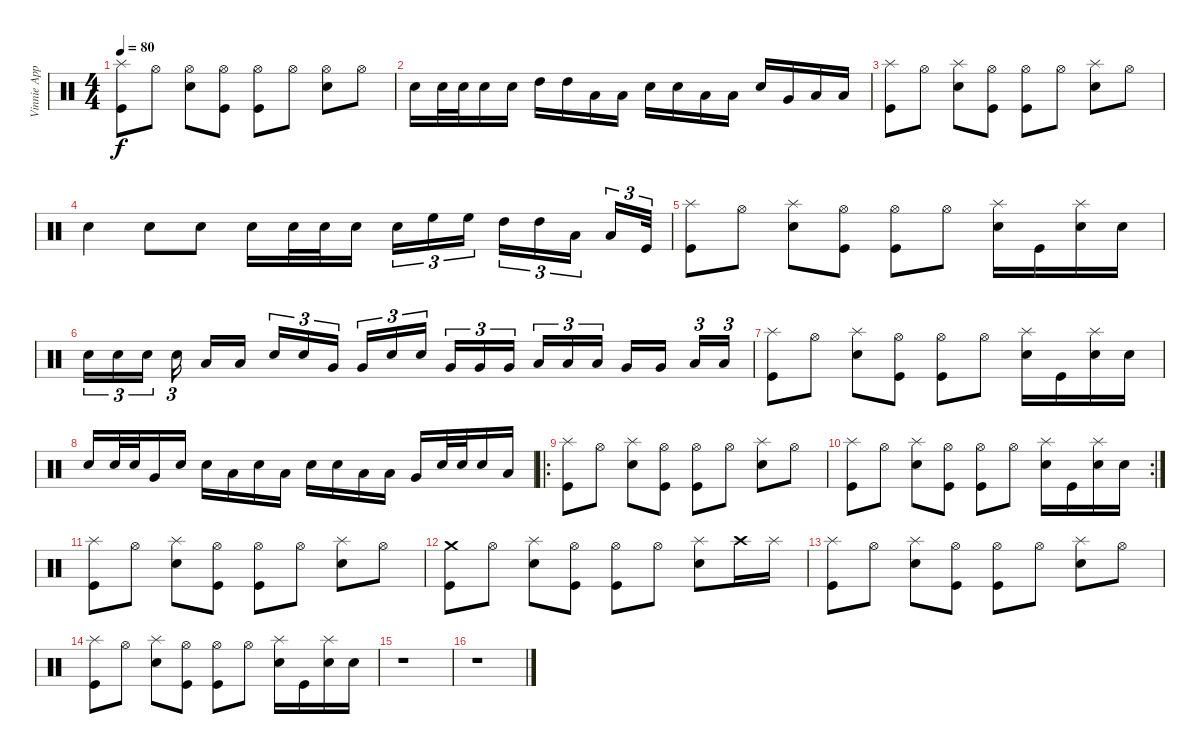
\track ("Vinnie Appice (drums)" "Vinnie App") {instrument percussion}
\staff {score}
\articulation defaults
\ts (4 4)
\tempo 80
\clef neutral
\ks c
("Splash (hit)" "Kick (hit)").8{dy f} "Hi-Hat (open)".8 ("Hi-Hat (open)" "Snare (hit) 2").8 ("Hi-Hat (open)" "Kick (hit)").8 ("Hi-Hat (open)" "Kick (hit)").8 "Hi-Hat (open)".8 ("Hi-Hat (open)" "Snare (hit) 2").8 "Hi-Hat (open)".8 |
"Snare (hit) 2".16 "Snare (hit) 2".32 "Snare (hit) 2".32 "Snare (hit) 2".16 "Snare (hit) 2".16 "High Tom (hit)".16 "High Tom (hit)".16 "Low Tom (hit)".16 "Low Tom (hit)".16 "Snare (hit) 2".16 "Snare (hit) 2".16 "Low Tom (hit)".16 "Low Tom (hit)".16 "Snare (hit) 2".16 "Very Low Tom (hit)".16 "Low Floor Tom (hit)".16 "Low Floor Tom (hit)".16 |
("Splash (hit)" "Kick (hit)").8 "Hi-Hat (open)".8 ("Splash (hit)" "Snare (hit) 2").8 ("Hi-Hat (open)" "Kick (hit)").8 ("Hi-Hat (open)" "Kick (hit)").8 "Hi-Hat (open)".8 ("Splash (hit)" "Snare (hit) 2").8 "Hi-Hat (open)".8 |
"Snare (hit) 2".4 "Snare (hit) 2".8 "Snare (hit) 2".8 "Snare (hit) 2".16 "Snare (hit) 2".32 "Snare (hit) 2".32 "Snare (hit) 2".16 "Snare (hit) 2".16{tu (3 2)} "High Floor Tom (hit)".16{tu (3 2)} "High Floor Tom (hit)".16{tu (3 2)} "High Tom (hit)".16{tu (3 2)} "High Tom (hit)".16{tu (3 2)} "Low Tom (hit)".16{tu (3 2)} "Low Tom (hit)".16{tu (3 2)} "Kick (hit)".32{tu (3 2)} |
("Splash (hit)" "Kick (hit)").8 "Hi-Hat (open)".8 ("Splash (hit)" "Snare (hit) 2").8 ("Hi-Hat (open)" "Kick (hit)").8 ("Hi-Hat (open)" "Kick (hit)").8 "Hi-Hat (open)".8 ("Splash (hit)" "Snare (hit) 2").16 "Kick (hit)".16 ("Splash (hit)" "Snare (hit) 2").16 "Snare (hit) 2".16 |
"Snare (hit) 2".16{tu (3 2)} "Snare (hit) 2".16{tu (3 2)} "Snare (hit) 2".16{tu (3 2)} "Snare (hit) 2".16{tu (3 2)} "Low Tom (hit)".16 "Low Tom (hit)".16 "Snare (hit) 2".16{tu (3 2)} "Snare (hit) 2".16{tu (3 2)} "Very Low Tom (hit)".16{tu (3 2)} "Very Low Tom (hit)".16{tu (3 2)} "Snare (hit) 2".16{tu (3 2)} "Snare (hit) 2".16{tu (3 2)} "Very Low Tom (hit)".16{tu (3 2)} "Very Low Tom (hit)".16{tu (3 2)} "Very Low Tom (hit)".16{tu (3 2)} "Low Tom (hit)".16{tu (3 2)} "Low Tom (hit)".16{tu (3 2)} "Low Tom (hit)".16{tu (3 2)} "Very Low Tom (hit)".16 "Very Low Tom (hit)".16 "Low Floor Tom (hit)".16{tu (3 2)} "Low Floor Tom (hit)".16{tu (3 2)} |
("Splash (hit)" "Kick (hit)").8 "Hi-Hat (open)".8 ("Splash (hit)" "Snare (hit) 2").8 ("Hi-Hat (open)" "Kick (hit)").8 ("Hi-Hat (open)" "Kick (hit)").8 "Hi-Hat (open)".8 ("Splash (hit)" "Snare (hit) 2").16 "Kick (hit)".16 ("Splash (hit)" "Snare (hit) 2").16 "Snare (hit) 2".16 |
"Snare (hit) 2".16 "Snare (hit) 2".32 "Snare (hit) 2".32 "Very Low Tom (hit)".16 "Snare (hit) 2".16 "Snare (hit) 2".16 "Low Floor Tom (hit)".16 "Snare (hit) 2".16 "Low Tom (hit)".16 "Snare (hit) 2".16 "Snare (hit) 2".16 "Low Tom (hit)".16 "Low Tom (hit)".16 "Very Low Tom (hit)".16 "Snare (hit) 2".32 "Snare (hit) 2".32 "Snare (hit) 2".16 "Low Floor Tom (hit)".16 |
\ro
("Splash (hit)" "Kick (hit)").8 "Hi-Hat (open)".8 ("Splash (hit)" "Snare (hit) 2").8 ("Hi-Hat (open)" "Kick (hit)").8 ("Hi-Hat (open)" "Kick (hit)").8 "Hi-Hat (open)".8 ("Splash (hit)" "Snare (hit) 2").8 "Hi-Hat (open)".8 |
\rc 2
("Splash (hit)" "Kick (hit)").8 "Hi-Hat (open)".8 ("Splash (hit)" "Snare (hit) 2").8 ("Hi-Hat (open)" "Kick (hit)").8 ("Hi-Hat (open)" "Kick (hit)").8 "Hi-Hat (open)".8 ("Splash (hit)" "Snare (hit) 2").16 "Kick (hit)".16 ("Splash (hit)" "Snare (hit) 2").16 "Snare (hit) 2".16 |
("Splash (hit)" "Kick (hit)").8{volume 8} "Hi-Hat (open)".8 ("Splash (hit)" "Snare (hit) 2").8 ("Hi-Hat (open)" "Kick (hit)").8 ("Hi-Hat (open)" "Kick (hit)").8 "Hi-Hat (open)".8 ("Splash (hit)" "Snare (hit) 2").8 "Hi-Hat (open)".8 |
("Crash medium (hit)" "Kick (hit)").8 "Hi-Hat (open)".8 ("Splash (hit)" "Snare (hit) 2").8 ("Hi-Hat (open)" "Kick (hit)").8 ("Hi-Hat (open)" "Kick (hit)").8 "Hi-Hat (open)".8 ("Splash (hit)" "Snare (hit) 2").8 "Crash high (hit)".16 "Splash (hit)".16 |
("Splash (hit)" "Kick (hit)").8{volume 0} "Hi-Hat (open)".8 ("Splash (hit)" "Snare (hit) 2").8 ("Hi-Hat (open)" "Kick (hit)").8 ("Hi-Hat (open)" "Kick (hit)").8 "Hi-Hat (open)".8 ("Splash (hit)" "Snare (hit) 2").8 "Hi-Hat (open)".8 |
("Splash (hit)" "Kick (hit)").8 "Hi-Hat (open)".8 ("Splash (hit)" "Snare (hit) 2").8 ("Hi-Hat (open)" "Kick (hit)").8 ("Hi-Hat (open)" "Kick (hit)").8 "Hi-Hat (open)".8 ("Splash (hit)" "Snare (hit) 2").16 "Kick (hit)".16 ("Splash (hit)" "Snare (hit) 2").16 "Snare (hit) 2".16 |
r.1 |
r.1
